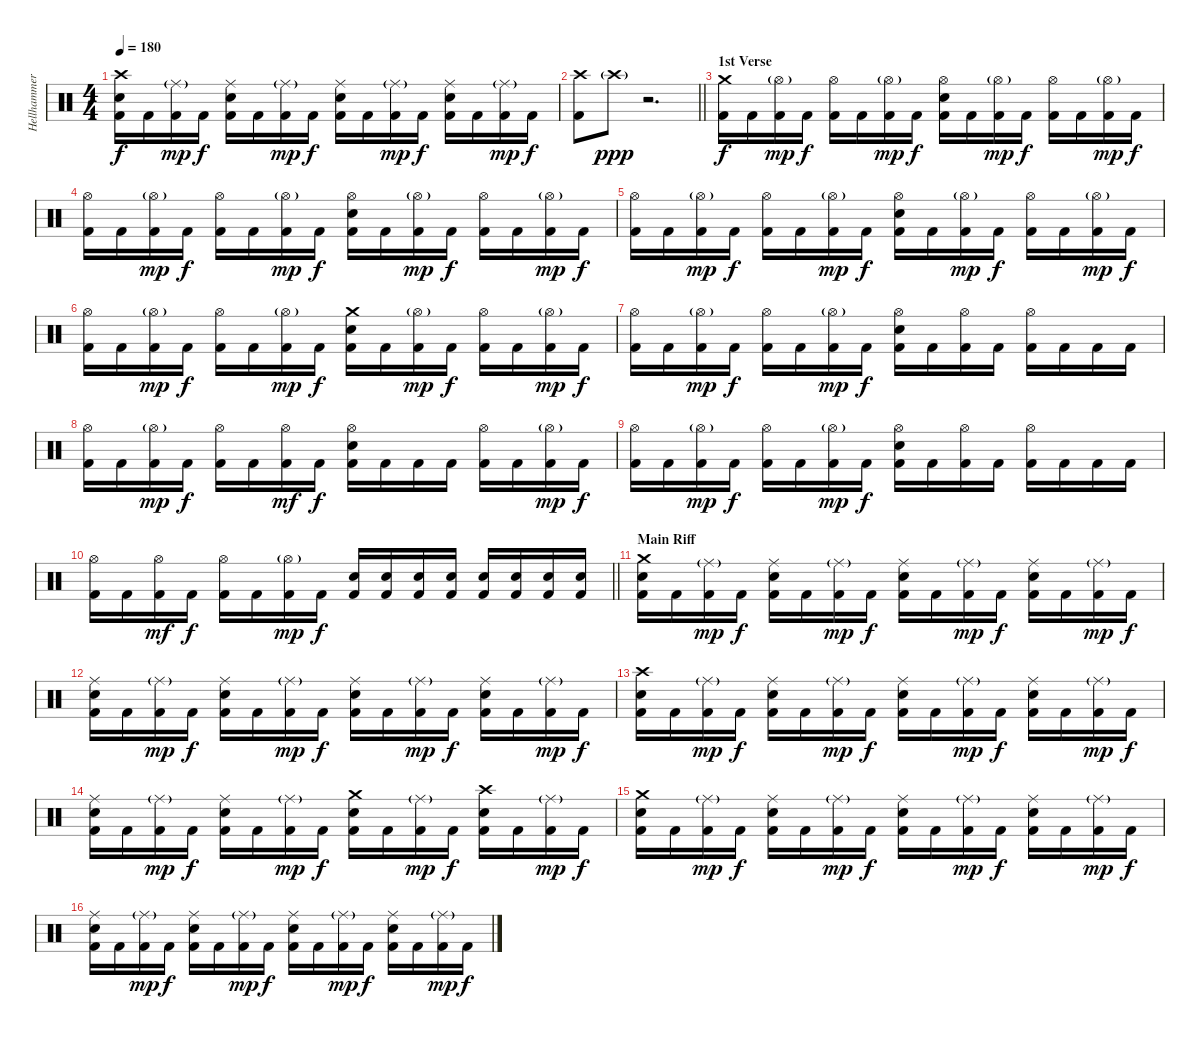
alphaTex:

\track ("Hellhammer" "Hellhammer") {instrument percussion}
\staff {score}
\articulation defaults
\ts (4 4)
\tempo 180
\clef neutral
\ks c
("Crash high (hit)" "Electric Snare (hit)" "Kick (hit) 2").16{dy f} "Kick (hit) 2".16 ("Ride (middle)"{g} "Kick (hit) 2").16{dy mp} "Kick (hit) 2".16{dy f} ("Ride (middle)" "Electric Snare (hit)" "Kick (hit) 2").16 "Kick (hit) 2".16 ("Ride (middle)"{g} "Kick (hit) 2").16{dy mp} "Kick (hit) 2".16{dy f} ("Ride (middle)" "Electric Snare (hit)" "Kick (hit) 2").16 "Kick (hit) 2".16 ("Ride (middle)"{g} "Kick (hit) 2").16{dy mp} "Kick (hit) 2".16{dy f} ("Ride (middle)" "Electric Snare (hit)" "Kick (hit) 2").16 "Kick (hit) 2".16 ("Ride (middle)"{g} "Kick (hit) 2").16{dy mp} "Kick (hit) 2".16{dy f} |
\barLineRight lightlight
("Crash high (hit)" "Kick (hit) 2").8 "Crash high (hit)"{g}.8{dy ppp} r.2{d} |
\section ("" "1st Verse")
("Crash medium (hit)" "Kick (hit) 2").16{dy f} "Kick (hit) 2".16 ("Hi-Hat (open)"{g} "Kick (hit) 2").16{dy mp} "Kick (hit) 2".16{dy f} ("Hi-Hat (open)" "Kick (hit) 2").16 "Kick (hit) 2".16 ("Hi-Hat (open)"{g} "Kick (hit) 2").16{dy mp} "Kick (hit) 2".16{dy f} ("Hi-Hat (open)" "Electric Snare (hit)" "Kick (hit) 2").16 "Kick (hit) 2".16 ("Hi-Hat (open)"{g} "Kick (hit) 2").16{dy mp} "Kick (hit) 2".16{dy f} ("Hi-Hat (open)" "Kick (hit) 2").16 "Kick (hit) 2".16 ("Hi-Hat (open)"{g} "Kick (hit) 2").16{dy mp} "Kick (hit) 2".16{dy f} |
("Hi-Hat (open)" "Kick (hit) 2").16 "Kick (hit) 2".16 ("Hi-Hat (open)"{g} "Kick (hit) 2").16{dy mp} "Kick (hit) 2".16{dy f} ("Hi-Hat (open)" "Kick (hit) 2").16 "Kick (hit) 2".16 ("Hi-Hat (open)"{g} "Kick (hit) 2").16{dy mp} "Kick (hit) 2".16{dy f} ("Hi-Hat (open)" "Electric Snare (hit)" "Kick (hit) 2").16 "Kick (hit) 2".16 ("Hi-Hat (open)"{g} "Kick (hit) 2").16{dy mp} "Kick (hit) 2".16{dy f} ("Hi-Hat (open)" "Kick (hit) 2").16 "Kick (hit) 2".16 ("Hi-Hat (open)"{g} "Kick (hit) 2").16{dy mp} "Kick (hit) 2".16{dy f} |
("Hi-Hat (open)" "Kick (hit) 2").16 "Kick (hit) 2".16 ("Hi-Hat (open)"{g} "Kick (hit) 2").16{dy mp} "Kick (hit) 2".16{dy f} ("Hi-Hat (open)" "Kick (hit) 2").16 "Kick (hit) 2".16 ("Hi-Hat (open)"{g} "Kick (hit) 2").16{dy mp} "Kick (hit) 2".16{dy f} ("Hi-Hat (open)" "Electric Snare (hit)" "Kick (hit) 2").16 "Kick (hit) 2".16 ("Hi-Hat (open)"{g} "Kick (hit) 2").16{dy mp} "Kick (hit) 2".16{dy f} ("Hi-Hat (open)" "Kick (hit) 2").16 "Kick (hit) 2".16 ("Hi-Hat (open)"{g} "Kick (hit) 2").16{dy mp} "Kick (hit) 2".16{dy f} |
("Hi-Hat (open)" "Kick (hit) 2").16 "Kick (hit) 2".16 ("Hi-Hat (open)"{g} "Kick (hit) 2").16{dy mp} "Kick (hit) 2".16{dy f} ("Hi-Hat (open)" "Kick (hit) 2").16 "Kick (hit) 2".16 ("Hi-Hat (open)"{g} "Kick (hit) 2").16{dy mp} "Kick (hit) 2".16{dy f} ("Crash medium (hit)" "Electric Snare (hit)" "Kick (hit) 2").16 "Kick (hit) 2".16 ("Hi-Hat (open)"{g} "Kick (hit) 2").16{dy mp} "Kick (hit) 2".16{dy f} ("Hi-Hat (open)" "Kick (hit) 2").16 "Kick (hit) 2".16 ("Hi-Hat (open)"{g} "Kick (hit) 2").16{dy mp} "Kick (hit) 2".16{dy f} |
("Hi-Hat (open)" "Kick (hit) 2").16 "Kick (hit) 2".16 ("Hi-Hat (open)"{g} "Kick (hit) 2").16{dy mp} "Kick (hit) 2".16{dy f} ("Hi-Hat (open)" "Kick (hit) 2").16 "Kick (hit) 2".16 ("Hi-Hat (open)"{g} "Kick (hit) 2").16{dy mp} "Kick (hit) 2".16{dy f} ("Hi-Hat (open)" "Electric Snare (hit)" "Kick (hit) 2").16 "Kick (hit) 2".16 ("Hi-Hat (open)" "Kick (hit) 2").16 "Kick (hit) 2".16 ("Hi-Hat (open)" "Kick (hit) 2").16 "Kick (hit) 2".16 "Kick (hit) 2".16 "Kick (hit) 2".16 |
("Hi-Hat (open)" "Kick (hit) 2").16 "Kick (hit) 2".16 ("Hi-Hat (open)"{g} "Kick (hit) 2").16{dy mp} "Kick (hit) 2".16{dy f} ("Hi-Hat (open)" "Kick (hit) 2").16 "Kick (hit) 2".16 ("Hi-Hat (open)" "Kick (hit) 2").16{dy mf} "Kick (hit) 2".16{dy f} ("Hi-Hat (open)" "Electric Snare (hit)" "Kick (hit) 2").16 "Kick (hit) 2".16 "Kick (hit) 2".16 "Kick (hit) 2".16 ("Hi-Hat (open)" "Kick (hit) 2").16 "Kick (hit) 2".16 ("Hi-Hat (open)"{g} "Kick (hit) 2").16{dy mp} "Kick (hit) 2".16{dy f} |
("Hi-Hat (open)" "Kick (hit) 2").16 "Kick (hit) 2".16 ("Hi-Hat (open)"{g} "Kick (hit) 2").16{dy mp} "Kick (hit) 2".16{dy f} ("Hi-Hat (open)" "Kick (hit) 2").16 "Kick (hit) 2".16 ("Hi-Hat (open)"{g} "Kick (hit) 2").16{dy mp} "Kick (hit) 2".16{dy f} ("Hi-Hat (open)" "Electric Snare (hit)" "Kick (hit) 2").16 "Kick (hit) 2".16 ("Hi-Hat (open)" "Kick (hit) 2").16 "Kick (hit) 2".16 ("Hi-Hat (open)" "Kick (hit) 2").16 "Kick (hit) 2".16 "Kick (hit) 2".16 "Kick (hit) 2".16 |
\barLineRight lightlight
("Hi-Hat (open)" "Kick (hit) 2").16 "Kick (hit) 2".16 ("Hi-Hat (open)" "Kick (hit) 2").16{dy mf} "Kick (hit) 2".16{dy f} ("Hi-Hat (open)" "Kick (hit) 2").16 "Kick (hit) 2".16 ("Hi-Hat (open)"{g} "Kick (hit) 2").16{dy mp} "Kick (hit) 2".16{dy f} ("Electric Snare (hit)" "Kick (hit) 2").16 ("Electric Snare (hit)" "Kick (hit) 2").16 ("Electric Snare (hit)" "Kick (hit) 2").16 ("Electric Snare (hit)" "Kick (hit) 2").16 ("Electric Snare (hit)" "Kick (hit) 2").16 ("Electric Snare (hit)" "Kick (hit) 2").16 ("Electric Snare (hit)" "Kick (hit) 2").16 ("Electric Snare (hit)" "Kick (hit) 2").16 |
\section ("" "Main Riff")
("Crash medium (hit)" "Electric Snare (hit)" "Kick (hit) 2").16 "Kick (hit) 2".16 ("Ride (middle)"{g} "Kick (hit) 2").16{dy mp} "Kick (hit) 2".16{dy f} ("Ride (middle)" "Electric Snare (hit)" "Kick (hit) 2").16 "Kick (hit) 2".16 ("Ride (middle)"{g} "Kick (hit) 2").16{dy mp} "Kick (hit) 2".16{dy f} ("Ride (middle)" "Electric Snare (hit)" "Kick (hit) 2").16 "Kick (hit) 2".16 ("Ride (middle)"{g} "Kick (hit) 2").16{dy mp} "Kick (hit) 2".16{dy f} ("Ride (middle)" "Electric Snare (hit)" "Kick (hit) 2").16 "Kick (hit) 2".16 ("Ride (middle)"{g} "Kick (hit) 2").16{dy mp} "Kick (hit) 2".16{dy f} |
("Ride (middle)" "Electric Snare (hit)" "Kick (hit) 2").16 "Kick (hit) 2".16 ("Ride (middle)"{g} "Kick (hit) 2").16{dy mp} "Kick (hit) 2".16{dy f} ("Ride (middle)" "Electric Snare (hit)" "Kick (hit) 2").16 "Kick (hit) 2".16 ("Ride (middle)"{g} "Kick (hit) 2").16{dy mp} "Kick (hit) 2".16{dy f} ("Ride (middle)" "Electric Snare (hit)" "Kick (hit) 2").16 "Kick (hit) 2".16 ("Ride (middle)"{g} "Kick (hit) 2").16{dy mp} "Kick (hit) 2".16{dy f} ("Ride (middle)" "Electric Snare (hit)" "Kick (hit) 2").16 "Kick (hit) 2".16 ("Ride (middle)"{g} "Kick (hit) 2").16{dy mp} "Kick (hit) 2".16{dy f} |
("Crash high (hit)" "Electric Snare (hit)" "Kick (hit) 2").16 "Kick (hit) 2".16 ("Ride (middle)"{g} "Kick (hit) 2").16{dy mp} "Kick (hit) 2".16{dy f} ("Ride (middle)" "Electric Snare (hit)" "Kick (hit) 2").16 "Kick (hit) 2".16 ("Ride (middle)"{g} "Kick (hit) 2").16{dy mp} "Kick (hit) 2".16{dy f} ("Ride (middle)" "Electric Snare (hit)" "Kick (hit) 2").16 "Kick (hit) 2".16 ("Ride (middle)"{g} "Kick (hit) 2").16{dy mp} "Kick (hit) 2".16{dy f} ("Ride (middle)" "Electric Snare (hit)" "Kick (hit) 2").16 "Kick (hit) 2".16 ("Ride (middle)"{g} "Kick (hit) 2").16{dy mp} "Kick (hit) 2".16{dy f} |
("Ride (middle)" "Electric Snare (hit)" "Kick (hit) 2").16 "Kick (hit) 2".16 ("Ride (middle)"{g} "Kick (hit) 2").16{dy mp} "Kick (hit) 2".16{dy f} ("Ride (middle)" "Electric Snare (hit)" "Kick (hit) 2").16 "Kick (hit) 2".16 ("Ride (middle)"{g} "Kick (hit) 2").16{dy mp} "Kick (hit) 2".16{dy f} ("Crash medium (hit)" "Electric Snare (hit)" "Kick (hit) 2").16 "Kick (hit) 2".16 ("Ride (middle)"{g} "Kick (hit) 2").16{dy mp} "Kick (hit) 2".16{dy f} ("Crash high (hit)" "Electric Snare (hit)" "Kick (hit) 2").16 "Kick (hit) 2".16 ("Ride (middle)"{g} "Kick (hit) 2").16{dy mp} "Kick (hit) 2".16{dy f} |
("Crash medium (hit)" "Electric Snare (hit)" "Kick (hit) 2").16 "Kick (hit) 2".16 ("Ride (middle)"{g} "Kick (hit) 2").16{dy mp} "Kick (hit) 2".16{dy f} ("Ride (middle)" "Electric Snare (hit)" "Kick (hit) 2").16 "Kick (hit) 2".16 ("Ride (middle)"{g} "Kick (hit) 2").16{dy mp} "Kick (hit) 2".16{dy f} ("Ride (middle)" "Electric Snare (hit)" "Kick (hit) 2").16 "Kick (hit) 2".16 ("Ride (middle)"{g} "Kick (hit) 2").16{dy mp} "Kick (hit) 2".16{dy f} ("Ride (middle)" "Electric Snare (hit)" "Kick (hit) 2").16 "Kick (hit) 2".16 ("Ride (middle)"{g} "Kick (hit) 2").16{dy mp} "Kick (hit) 2".16{dy f} |
("Ride (middle)" "Electric Snare (hit)" "Kick (hit) 2").16 "Kick (hit) 2".16 ("Ride (middle)"{g} "Kick (hit) 2").16{dy mp} "Kick (hit) 2".16{dy f} ("Ride (middle)" "Electric Snare (hit)" "Kick (hit) 2").16 "Kick (hit) 2".16 ("Ride (middle)"{g} "Kick (hit) 2").16{dy mp} "Kick (hit) 2".16{dy f} ("Ride (middle)" "Electric Snare (hit)" "Kick (hit) 2").16 "Kick (hit) 2".16 ("Ride (middle)"{g} "Kick (hit) 2").16{dy mp} "Kick (hit) 2".16{dy f} ("Ride (middle)" "Electric Snare (hit)" "Kick (hit) 2").16 "Kick (hit) 2".16 ("Ride (middle)"{g} "Kick (hit) 2").16{dy mp} "Kick (hit) 2".16{dy f}
